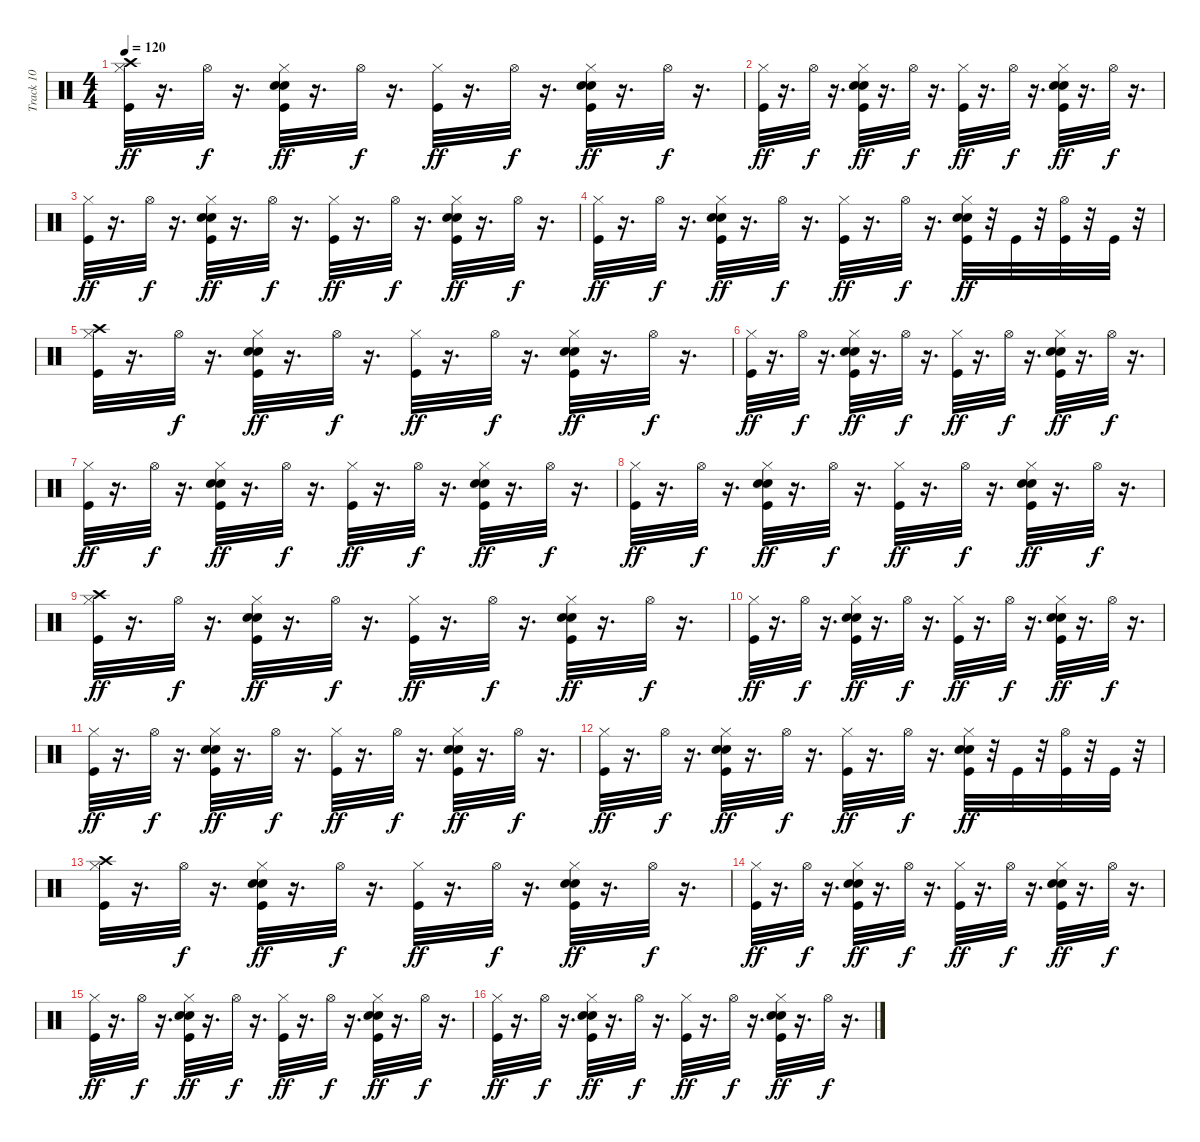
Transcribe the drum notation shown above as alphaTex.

\track ("Track 10" "Track 10") {instrument percussion}
\staff {score}
\articulation defaults
\ts (4 4)
\tempo 120
\clef neutral
\ks c
("Kick (hit)" "Hi-Hat (closed)" "Crash high (hit)").32{dy ff} r.16{d} "Hi-Hat (open)".32{dy f} r.16{d} ("Kick (hit)" "Snare (hit) 2" "Hand Clap (hit)" "Hi-Hat (closed)").32{dy ff} r.16{d} "Hi-Hat (open)".32{dy f} r.16{d} ("Kick (hit)" "Hi-Hat (closed)").32{dy ff} r.16{d} "Hi-Hat (open)".32{dy f} r.16{d} ("Kick (hit)" "Snare (hit) 2" "Hand Clap (hit)" "Hi-Hat (closed)").32{dy ff} r.16{d} "Hi-Hat (open)".32{dy f} r.16{d} |
("Kick (hit)" "Hi-Hat (closed)").32{dy ff} r.16{d} "Hi-Hat (open)".32{dy f} r.16{d} ("Kick (hit)" "Snare (hit) 2" "Hand Clap (hit)" "Hi-Hat (closed)").32{dy ff} r.16{d} "Hi-Hat (open)".32{dy f} r.16{d} ("Kick (hit)" "Hi-Hat (closed)").32{dy ff} r.16{d} "Hi-Hat (open)".32{dy f} r.16{d} ("Kick (hit)" "Snare (hit) 2" "Hand Clap (hit)" "Hi-Hat (closed)").32{dy ff} r.16{d} "Hi-Hat (open)".32{dy f} r.16{d} |
("Kick (hit)" "Hi-Hat (closed)").32{dy ff} r.16{d} "Hi-Hat (open)".32{dy f} r.16{d} ("Kick (hit)" "Snare (hit) 2" "Hand Clap (hit)" "Hi-Hat (closed)").32{dy ff} r.16{d} "Hi-Hat (open)".32{dy f} r.16{d} ("Kick (hit)" "Hi-Hat (closed)").32{dy ff} r.16{d} "Hi-Hat (open)".32{dy f} r.16{d} ("Kick (hit)" "Snare (hit) 2" "Hand Clap (hit)" "Hi-Hat (closed)").32{dy ff} r.16{d} "Hi-Hat (open)".32{dy f} r.16{d} |
("Kick (hit)" "Hi-Hat (closed)").32{dy ff} r.16{d} "Hi-Hat (open)".32{dy f} r.16{d} ("Kick (hit)" "Snare (hit) 2" "Hand Clap (hit)" "Hi-Hat (closed)").32{dy ff} r.16{d} "Hi-Hat (open)".32{dy f} r.16{d} ("Kick (hit)" "Hi-Hat (closed)").32{dy ff} r.16{d} "Hi-Hat (open)".32{dy f} r.16{d} ("Kick (hit)" "Snare (hit) 2" "Hand Clap (hit)" "Hi-Hat (closed)").32{dy ff} r.32 "Kick (hit)".32 r.32 ("Kick (hit)" "Hi-Hat (open)").32 r.32 "Kick (hit)".32 r.32 |
("Kick (hit)" "Hi-Hat (closed)" "Crash high (hit)").32 r.16{d} "Hi-Hat (open)".32{dy f} r.16{d} ("Kick (hit)" "Snare (hit) 2" "Hand Clap (hit)" "Hi-Hat (closed)").32{dy ff} r.16{d} "Hi-Hat (open)".32{dy f} r.16{d} ("Kick (hit)" "Hi-Hat (closed)").32{dy ff} r.16{d} "Hi-Hat (open)".32{dy f} r.16{d} ("Kick (hit)" "Snare (hit) 2" "Hand Clap (hit)" "Hi-Hat (closed)").32{dy ff} r.16{d} "Hi-Hat (open)".32{dy f} r.16{d} |
("Kick (hit)" "Hi-Hat (closed)").32{dy ff} r.16{d} "Hi-Hat (open)".32{dy f} r.16{d} ("Kick (hit)" "Snare (hit) 2" "Hand Clap (hit)" "Hi-Hat (closed)").32{dy ff} r.16{d} "Hi-Hat (open)".32{dy f} r.16{d} ("Kick (hit)" "Hi-Hat (closed)").32{dy ff} r.16{d} "Hi-Hat (open)".32{dy f} r.16{d} ("Kick (hit)" "Snare (hit) 2" "Hand Clap (hit)" "Hi-Hat (closed)").32{dy ff} r.16{d} "Hi-Hat (open)".32{dy f} r.16{d} |
("Kick (hit)" "Hi-Hat (closed)").32{dy ff} r.16{d} "Hi-Hat (open)".32{dy f} r.16{d} ("Kick (hit)" "Snare (hit) 2" "Hand Clap (hit)" "Hi-Hat (closed)").32{dy ff} r.16{d} "Hi-Hat (open)".32{dy f} r.16{d} ("Kick (hit)" "Hi-Hat (closed)").32{dy ff} r.16{d} "Hi-Hat (open)".32{dy f} r.16{d} ("Kick (hit)" "Snare (hit) 2" "Hand Clap (hit)" "Hi-Hat (closed)").32{dy ff} r.16{d} "Hi-Hat (open)".32{dy f} r.16{d} |
("Kick (hit)" "Hi-Hat (closed)").32{dy ff} r.16{d} "Hi-Hat (open)".32{dy f} r.16{d} ("Kick (hit)" "Snare (hit) 2" "Hand Clap (hit)" "Hi-Hat (closed)").32{dy ff} r.16{d} "Hi-Hat (open)".32{dy f} r.16{d} ("Kick (hit)" "Hi-Hat (closed)").32{dy ff} r.16{d} "Hi-Hat (open)".32{dy f} r.16{d} ("Kick (hit)" "Snare (hit) 2" "Hand Clap (hit)" "Hi-Hat (closed)").32{dy ff} r.16{d} "Hi-Hat (open)".32{dy f} r.16{d} |
("Kick (hit)" "Hi-Hat (closed)" "Crash high (hit)").32{dy ff} r.16{d} "Hi-Hat (open)".32{dy f} r.16{d} ("Kick (hit)" "Snare (hit) 2" "Hand Clap (hit)" "Hi-Hat (closed)").32{dy ff} r.16{d} "Hi-Hat (open)".32{dy f} r.16{d} ("Kick (hit)" "Hi-Hat (closed)").32{dy ff} r.16{d} "Hi-Hat (open)".32{dy f} r.16{d} ("Kick (hit)" "Snare (hit) 2" "Hand Clap (hit)" "Hi-Hat (closed)").32{dy ff} r.16{d} "Hi-Hat (open)".32{dy f} r.16{d} |
("Kick (hit)" "Hi-Hat (closed)").32{dy ff} r.16{d} "Hi-Hat (open)".32{dy f} r.16{d} ("Kick (hit)" "Snare (hit) 2" "Hand Clap (hit)" "Hi-Hat (closed)").32{dy ff} r.16{d} "Hi-Hat (open)".32{dy f} r.16{d} ("Kick (hit)" "Hi-Hat (closed)").32{dy ff} r.16{d} "Hi-Hat (open)".32{dy f} r.16{d} ("Kick (hit)" "Snare (hit) 2" "Hand Clap (hit)" "Hi-Hat (closed)").32{dy ff} r.16{d} "Hi-Hat (open)".32{dy f} r.16{d} |
("Kick (hit)" "Hi-Hat (closed)").32{dy ff} r.16{d} "Hi-Hat (open)".32{dy f} r.16{d} ("Kick (hit)" "Snare (hit) 2" "Hand Clap (hit)" "Hi-Hat (closed)").32{dy ff} r.16{d} "Hi-Hat (open)".32{dy f} r.16{d} ("Kick (hit)" "Hi-Hat (closed)").32{dy ff} r.16{d} "Hi-Hat (open)".32{dy f} r.16{d} ("Kick (hit)" "Snare (hit) 2" "Hand Clap (hit)" "Hi-Hat (closed)").32{dy ff} r.16{d} "Hi-Hat (open)".32{dy f} r.16{d} |
("Kick (hit)" "Hi-Hat (closed)").32{dy ff} r.16{d} "Hi-Hat (open)".32{dy f} r.16{d} ("Kick (hit)" "Snare (hit) 2" "Hand Clap (hit)" "Hi-Hat (closed)").32{dy ff} r.16{d} "Hi-Hat (open)".32{dy f} r.16{d} ("Kick (hit)" "Hi-Hat (closed)").32{dy ff} r.16{d} "Hi-Hat (open)".32{dy f} r.16{d} ("Kick (hit)" "Snare (hit) 2" "Hand Clap (hit)" "Hi-Hat (closed)").32{dy ff} r.32 "Kick (hit)".32 r.32 ("Kick (hit)" "Hi-Hat (open)").32 r.32 "Kick (hit)".32 r.32 |
("Kick (hit)" "Hi-Hat (closed)" "Crash high (hit)").32 r.16{d} "Hi-Hat (open)".32{dy f} r.16{d} ("Kick (hit)" "Snare (hit) 2" "Hand Clap (hit)" "Hi-Hat (closed)").32{dy ff} r.16{d} "Hi-Hat (open)".32{dy f} r.16{d} ("Kick (hit)" "Hi-Hat (closed)").32{dy ff} r.16{d} "Hi-Hat (open)".32{dy f} r.16{d} ("Kick (hit)" "Snare (hit) 2" "Hand Clap (hit)" "Hi-Hat (closed)").32{dy ff} r.16{d} "Hi-Hat (open)".32{dy f} r.16{d} |
("Kick (hit)" "Hi-Hat (closed)").32{dy ff} r.16{d} "Hi-Hat (open)".32{dy f} r.16{d} ("Kick (hit)" "Snare (hit) 2" "Hand Clap (hit)" "Hi-Hat (closed)").32{dy ff} r.16{d} "Hi-Hat (open)".32{dy f} r.16{d} ("Kick (hit)" "Hi-Hat (closed)").32{dy ff} r.16{d} "Hi-Hat (open)".32{dy f} r.16{d} ("Kick (hit)" "Snare (hit) 2" "Hand Clap (hit)" "Hi-Hat (closed)").32{dy ff} r.16{d} "Hi-Hat (open)".32{dy f} r.16{d} |
("Kick (hit)" "Hi-Hat (closed)").32{dy ff} r.16{d} "Hi-Hat (open)".32{dy f} r.16{d} ("Kick (hit)" "Snare (hit) 2" "Hand Clap (hit)" "Hi-Hat (closed)").32{dy ff} r.16{d} "Hi-Hat (open)".32{dy f} r.16{d} ("Kick (hit)" "Hi-Hat (closed)").32{dy ff} r.16{d} "Hi-Hat (open)".32{dy f} r.16{d} ("Kick (hit)" "Snare (hit) 2" "Hand Clap (hit)" "Hi-Hat (closed)").32{dy ff} r.16{d} "Hi-Hat (open)".32{dy f} r.16{d} |
("Kick (hit)" "Hi-Hat (closed)").32{dy ff} r.16{d} "Hi-Hat (open)".32{dy f} r.16{d} ("Kick (hit)" "Snare (hit) 2" "Hand Clap (hit)" "Hi-Hat (closed)").32{dy ff} r.16{d} "Hi-Hat (open)".32{dy f} r.16{d} ("Kick (hit)" "Hi-Hat (closed)").32{dy ff} r.16{d} "Hi-Hat (open)".32{dy f} r.16{d} ("Kick (hit)" "Snare (hit) 2" "Hand Clap (hit)" "Hi-Hat (closed)").32{dy ff} r.16{d} "Hi-Hat (open)".32{dy f} r.16{d}
